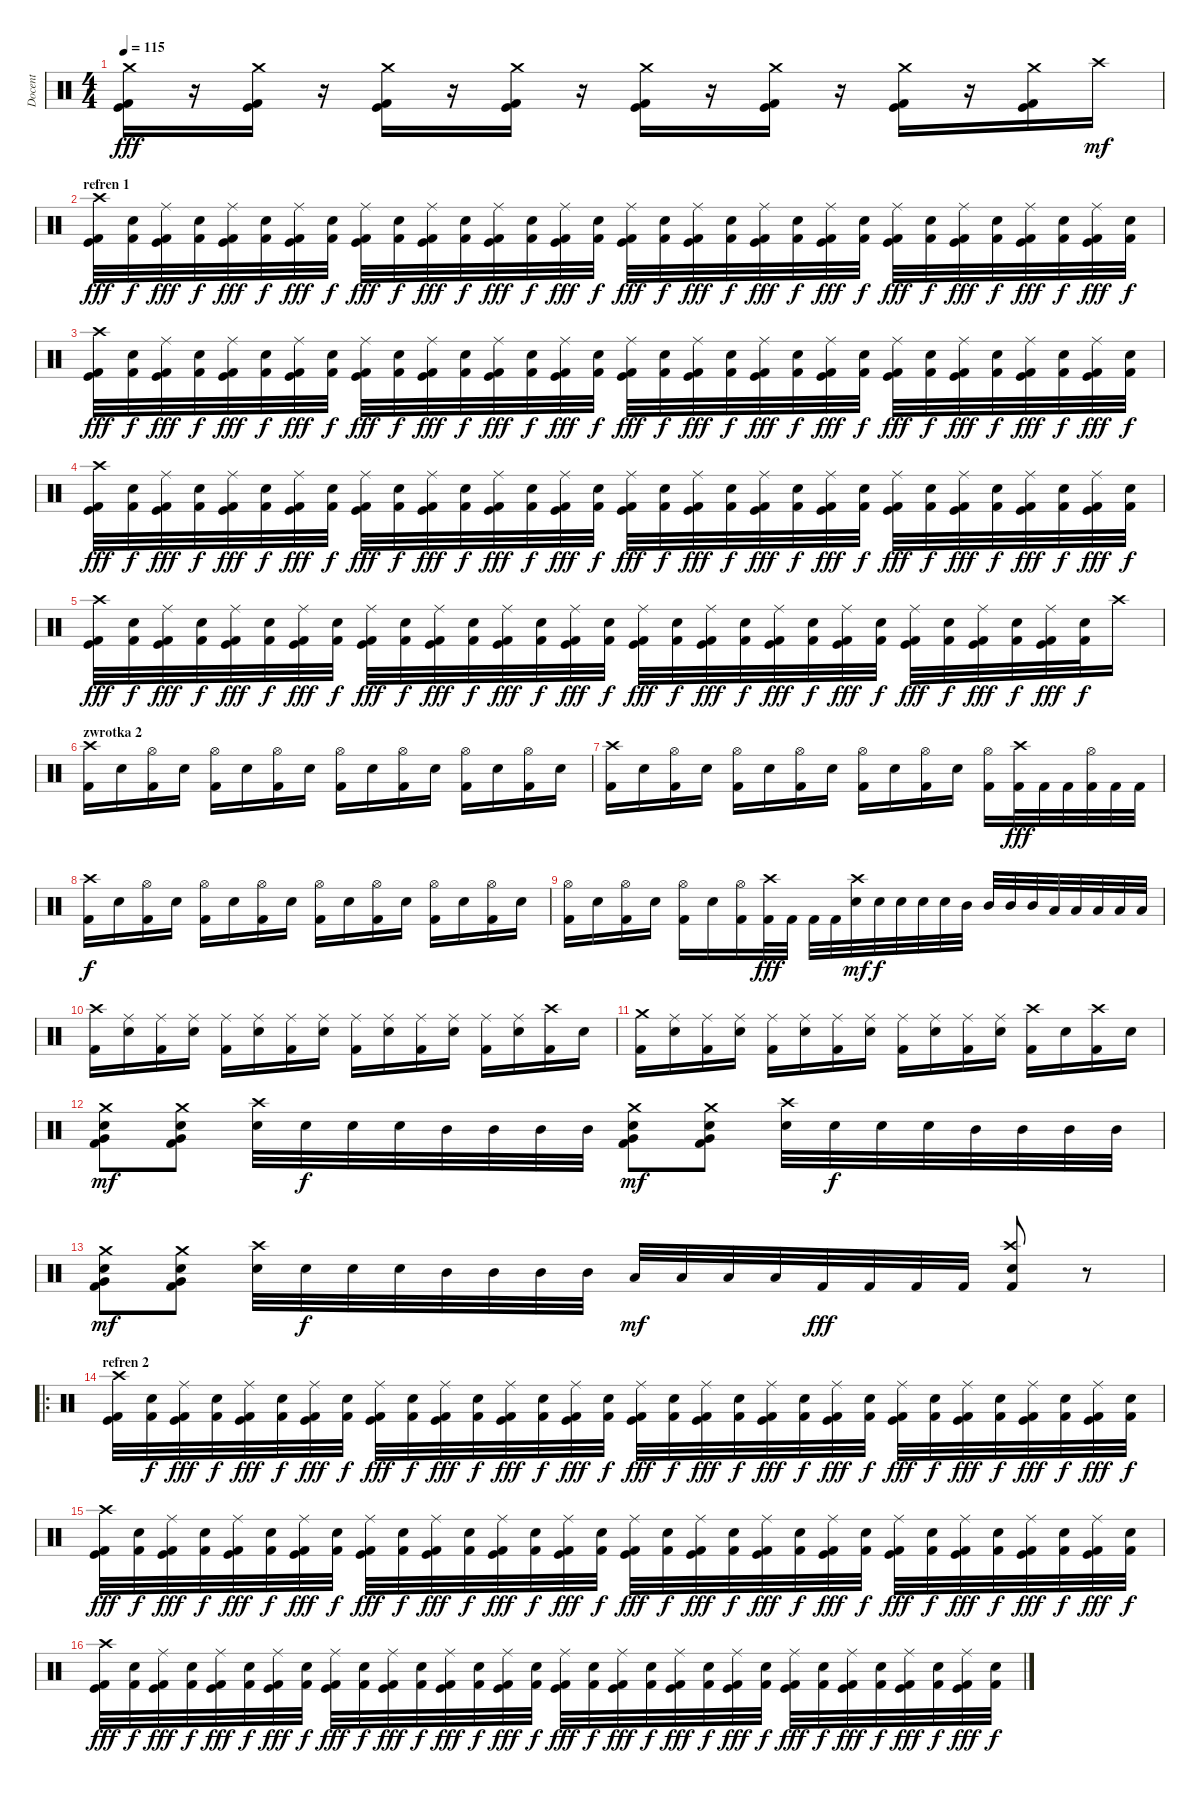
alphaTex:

\track ("Docent" "Docent") {instrument percussion}
\staff {score}
\articulation defaults
\ts (4 4)
\tempo 115
\clef neutral
\ks c
("Crash medium (hit)" "Kick (hit)" "Kick (hit) 2").16{dy fff} r.16 ("Crash medium (hit)" "Kick (hit)" "Kick (hit) 2").16 r.16 ("Crash medium (hit)" "Kick (hit)" "Kick (hit) 2").16 r.16 ("Crash medium (hit)" "Kick (hit)" "Kick (hit) 2").16 r.16 ("Crash medium (hit)" "Kick (hit)" "Kick (hit) 2").16 r.16 ("Crash medium (hit)" "Kick (hit)" "Kick (hit) 2").16 r.16 ("Crash medium (hit)" "Kick (hit)" "Kick (hit) 2").16 r.16 ("Crash medium (hit)" "Kick (hit)" "Kick (hit) 2").16 "Crash high (hit)".16{dy mf} |
\section ("" "refren 1")
("Crash high (hit)" "Kick (hit)" "Kick (hit) 2").32{dy fff} ("Electric Snare (hit)" "Kick (hit) 2").32{dy f} ("Ride (middle)" "Kick (hit)" "Kick (hit) 2").32{dy fff} ("Electric Snare (hit)" "Kick (hit) 2").32{dy f} ("Ride (middle)" "Kick (hit)" "Kick (hit) 2").32{dy fff} ("Electric Snare (hit)" "Kick (hit) 2").32{dy f} ("Ride (middle)" "Kick (hit)" "Kick (hit) 2").32{dy fff} ("Electric Snare (hit)" "Kick (hit) 2").32{dy f} ("Ride (middle)" "Kick (hit)" "Kick (hit) 2").32{dy fff} ("Electric Snare (hit)" "Kick (hit) 2").32{dy f} ("Ride (middle)" "Kick (hit)" "Kick (hit) 2").32{dy fff} ("Electric Snare (hit)" "Kick (hit) 2").32{dy f} ("Ride (middle)" "Kick (hit)" "Kick (hit) 2").32{dy fff} ("Electric Snare (hit)" "Kick (hit) 2").32{dy f} ("Ride (middle)" "Kick (hit)" "Kick (hit) 2").32{dy fff} ("Electric Snare (hit)" "Kick (hit) 2").32{dy f} ("Ride (middle)" "Kick (hit)" "Kick (hit) 2").32{dy fff} ("Electric Snare (hit)" "Kick (hit) 2").32{dy f} ("Ride (middle)" "Kick (hit)" "Kick (hit) 2").32{dy fff} ("Electric Snare (hit)" "Kick (hit) 2").32{dy f} ("Ride (middle)" "Kick (hit)" "Kick (hit) 2").32{dy fff} ("Electric Snare (hit)" "Kick (hit) 2").32{dy f} ("Ride (middle)" "Kick (hit)" "Kick (hit) 2").32{dy fff} ("Electric Snare (hit)" "Kick (hit) 2").32{dy f} ("Ride (middle)" "Kick (hit)" "Kick (hit) 2").32{dy fff} ("Electric Snare (hit)" "Kick (hit) 2").32{dy f} ("Ride (middle)" "Kick (hit)" "Kick (hit) 2").32{dy fff} ("Electric Snare (hit)" "Kick (hit) 2").32{dy f} ("Ride (middle)" "Kick (hit)" "Kick (hit) 2").32{dy fff} ("Electric Snare (hit)" "Kick (hit) 2").32{dy f} ("Ride (middle)" "Kick (hit)" "Kick (hit) 2").32{dy fff} ("Electric Snare (hit)" "Kick (hit) 2").32{dy f} |
("Crash high (hit)" "Kick (hit)" "Kick (hit) 2").32{dy fff} ("Electric Snare (hit)" "Kick (hit) 2").32{dy f} ("Ride (middle)" "Kick (hit)" "Kick (hit) 2").32{dy fff} ("Electric Snare (hit)" "Kick (hit) 2").32{dy f} ("Ride (middle)" "Kick (hit)" "Kick (hit) 2").32{dy fff} ("Electric Snare (hit)" "Kick (hit) 2").32{dy f} ("Ride (middle)" "Kick (hit)" "Kick (hit) 2").32{dy fff} ("Electric Snare (hit)" "Kick (hit) 2").32{dy f} ("Ride (middle)" "Kick (hit)" "Kick (hit) 2").32{dy fff} ("Electric Snare (hit)" "Kick (hit) 2").32{dy f} ("Ride (middle)" "Kick (hit)" "Kick (hit) 2").32{dy fff} ("Electric Snare (hit)" "Kick (hit) 2").32{dy f} ("Ride (middle)" "Kick (hit)" "Kick (hit) 2").32{dy fff} ("Electric Snare (hit)" "Kick (hit) 2").32{dy f} ("Ride (middle)" "Kick (hit)" "Kick (hit) 2").32{dy fff} ("Electric Snare (hit)" "Kick (hit) 2").32{dy f} ("Ride (middle)" "Kick (hit)" "Kick (hit) 2").32{dy fff} ("Electric Snare (hit)" "Kick (hit) 2").32{dy f} ("Ride (middle)" "Kick (hit)" "Kick (hit) 2").32{dy fff} ("Electric Snare (hit)" "Kick (hit) 2").32{dy f} ("Ride (middle)" "Kick (hit)" "Kick (hit) 2").32{dy fff} ("Electric Snare (hit)" "Kick (hit) 2").32{dy f} ("Ride (middle)" "Kick (hit)" "Kick (hit) 2").32{dy fff} ("Electric Snare (hit)" "Kick (hit) 2").32{dy f} ("Ride (middle)" "Kick (hit)" "Kick (hit) 2").32{dy fff} ("Electric Snare (hit)" "Kick (hit) 2").32{dy f} ("Ride (middle)" "Kick (hit)" "Kick (hit) 2").32{dy fff} ("Electric Snare (hit)" "Kick (hit) 2").32{dy f} ("Ride (middle)" "Kick (hit)" "Kick (hit) 2").32{dy fff} ("Electric Snare (hit)" "Kick (hit) 2").32{dy f} ("Ride (middle)" "Kick (hit)" "Kick (hit) 2").32{dy fff} ("Electric Snare (hit)" "Kick (hit) 2").32{dy f} |
("Crash high (hit)" "Kick (hit)" "Kick (hit) 2").32{dy fff} ("Electric Snare (hit)" "Kick (hit) 2").32{dy f} ("Ride (middle)" "Kick (hit)" "Kick (hit) 2").32{dy fff} ("Electric Snare (hit)" "Kick (hit) 2").32{dy f} ("Ride (middle)" "Kick (hit)" "Kick (hit) 2").32{dy fff} ("Electric Snare (hit)" "Kick (hit) 2").32{dy f} ("Ride (middle)" "Kick (hit)" "Kick (hit) 2").32{dy fff} ("Electric Snare (hit)" "Kick (hit) 2").32{dy f} ("Ride (middle)" "Kick (hit)" "Kick (hit) 2").32{dy fff} ("Electric Snare (hit)" "Kick (hit) 2").32{dy f} ("Ride (middle)" "Kick (hit)" "Kick (hit) 2").32{dy fff} ("Electric Snare (hit)" "Kick (hit) 2").32{dy f} ("Ride (middle)" "Kick (hit)" "Kick (hit) 2").32{dy fff} ("Electric Snare (hit)" "Kick (hit) 2").32{dy f} ("Ride (middle)" "Kick (hit)" "Kick (hit) 2").32{dy fff} ("Electric Snare (hit)" "Kick (hit) 2").32{dy f} ("Ride (middle)" "Kick (hit)" "Kick (hit) 2").32{dy fff} ("Electric Snare (hit)" "Kick (hit) 2").32{dy f} ("Ride (middle)" "Kick (hit)" "Kick (hit) 2").32{dy fff} ("Electric Snare (hit)" "Kick (hit) 2").32{dy f} ("Ride (middle)" "Kick (hit)" "Kick (hit) 2").32{dy fff} ("Electric Snare (hit)" "Kick (hit) 2").32{dy f} ("Ride (middle)" "Kick (hit)" "Kick (hit) 2").32{dy fff} ("Electric Snare (hit)" "Kick (hit) 2").32{dy f} ("Ride (middle)" "Kick (hit)" "Kick (hit) 2").32{dy fff} ("Electric Snare (hit)" "Kick (hit) 2").32{dy f} ("Ride (middle)" "Kick (hit)" "Kick (hit) 2").32{dy fff} ("Electric Snare (hit)" "Kick (hit) 2").32{dy f} ("Ride (middle)" "Kick (hit)" "Kick (hit) 2").32{dy fff} ("Electric Snare (hit)" "Kick (hit) 2").32{dy f} ("Ride (middle)" "Kick (hit)" "Kick (hit) 2").32{dy fff} ("Electric Snare (hit)" "Kick (hit) 2").32{dy f} |
("Crash high (hit)" "Kick (hit)" "Kick (hit) 2").32{dy fff} ("Electric Snare (hit)" "Kick (hit) 2").32{dy f} ("Ride (middle)" "Kick (hit)" "Kick (hit) 2").32{dy fff} ("Electric Snare (hit)" "Kick (hit) 2").32{dy f} ("Ride (middle)" "Kick (hit)" "Kick (hit) 2").32{dy fff} ("Electric Snare (hit)" "Kick (hit) 2").32{dy f} ("Ride (middle)" "Kick (hit)" "Kick (hit) 2").32{dy fff} ("Electric Snare (hit)" "Kick (hit) 2").32{dy f} ("Ride (middle)" "Kick (hit)" "Kick (hit) 2").32{dy fff} ("Electric Snare (hit)" "Kick (hit) 2").32{dy f} ("Ride (middle)" "Kick (hit)" "Kick (hit) 2").32{dy fff} ("Electric Snare (hit)" "Kick (hit) 2").32{dy f} ("Ride (middle)" "Kick (hit)" "Kick (hit) 2").32{dy fff} ("Electric Snare (hit)" "Kick (hit) 2").32{dy f} ("Ride (middle)" "Kick (hit)" "Kick (hit) 2").32{dy fff} ("Electric Snare (hit)" "Kick (hit) 2").32{dy f} ("Ride (middle)" "Kick (hit)" "Kick (hit) 2").32{dy fff} ("Electric Snare (hit)" "Kick (hit) 2").32{dy f} ("Ride (middle)" "Kick (hit)" "Kick (hit) 2").32{dy fff} ("Electric Snare (hit)" "Kick (hit) 2").32{dy f} ("Ride (middle)" "Kick (hit)" "Kick (hit) 2").32{dy fff} ("Electric Snare (hit)" "Kick (hit) 2").32{dy f} ("Ride (middle)" "Kick (hit)" "Kick (hit) 2").32{dy fff} ("Electric Snare (hit)" "Kick (hit) 2").32{dy f} ("Ride (middle)" "Kick (hit)" "Kick (hit) 2").32{dy fff} ("Electric Snare (hit)" "Kick (hit) 2").32{dy f} ("Ride (middle)" "Kick (hit)" "Kick (hit) 2").32{dy fff} ("Electric Snare (hit)" "Kick (hit) 2").32{dy f} ("Ride (middle)" "Kick (hit)" "Kick (hit) 2").32{dy fff} ("Electric Snare (hit)" "Kick (hit) 2").32{dy f} "Crash high (hit)".16 |
\section ("" "zwrotka 2")
("Crash high (hit)" "Kick (hit) 2").16 "Electric Snare (hit)".16 ("Hi-Hat (open)" "Kick (hit) 2").16 "Electric Snare (hit)".16 ("Hi-Hat (open)" "Kick (hit) 2").16 "Electric Snare (hit)".16 ("Hi-Hat (open)" "Kick (hit) 2").16 "Electric Snare (hit)".16 ("Hi-Hat (open)" "Kick (hit) 2").16 "Electric Snare (hit)".16 ("Hi-Hat (open)" "Kick (hit) 2").16 "Electric Snare (hit)".16 ("Hi-Hat (open)" "Kick (hit) 2").16 "Electric Snare (hit)".16 ("Hi-Hat (open)" "Kick (hit) 2").16 "Electric Snare (hit)".16 |
("Crash high (hit)" "Kick (hit) 2").16 "Electric Snare (hit)".16 ("Hi-Hat (open)" "Kick (hit) 2").16 "Electric Snare (hit)".16 ("Hi-Hat (open)" "Kick (hit) 2").16 "Electric Snare (hit)".16 ("Hi-Hat (open)" "Kick (hit) 2").16 "Electric Snare (hit)".16 ("Hi-Hat (open)" "Kick (hit) 2").16 "Electric Snare (hit)".16 ("Hi-Hat (open)" "Kick (hit) 2").16 "Electric Snare (hit)".16 ("Hi-Hat (open)" "Kick (hit) 2").16 ("Crash high (hit)" "Kick (hit) 2").32{dy fff} "Kick (hit) 2".32 "Kick (hit) 2".32 ("Hi-Hat (open)" "Kick (hit) 2").32 "Kick (hit) 2".32 "Kick (hit) 2".32 |
("Crash high (hit)" "Kick (hit) 2").16{dy f} "Electric Snare (hit)".16 ("Hi-Hat (open)" "Kick (hit) 2").16 "Electric Snare (hit)".16 ("Hi-Hat (open)" "Kick (hit) 2").16 "Electric Snare (hit)".16 ("Hi-Hat (open)" "Kick (hit) 2").16 "Electric Snare (hit)".16 ("Hi-Hat (open)" "Kick (hit) 2").16 "Electric Snare (hit)".16 ("Hi-Hat (open)" "Kick (hit) 2").16 "Electric Snare (hit)".16 ("Hi-Hat (open)" "Kick (hit) 2").16 "Electric Snare (hit)".16 ("Hi-Hat (open)" "Kick (hit) 2").16 "Electric Snare (hit)".16 |
("Hi-Hat (open)" "Kick (hit) 2").16 "Electric Snare (hit)".16 ("Hi-Hat (open)" "Kick (hit) 2").16 "Electric Snare (hit)".16 ("Hi-Hat (open)" "Kick (hit) 2").16 "Electric Snare (hit)".16 ("Hi-Hat (open)" "Kick (hit) 2").16 ("Crash high (hit)" "Kick (hit) 2").32{dy fff} "Kick (hit) 2".32 "Kick (hit) 2".32 "Kick (hit) 2".32 ("Crash high (hit)" "Electric Snare (hit)").32{dy mf} "Electric Snare (hit)".32{dy f} "Electric Snare (hit)".32 "Electric Snare (hit)".32 "Electric Snare (hit)".32 "Mid Tom (hit)".32 "Mid Tom (hit)".32 "Mid Tom (hit)".32 "Mid Tom (hit)".32 "Low Tom (hit)".32 "Low Tom (hit)".32 "Low Tom (hit)".32 "Low Tom (hit)".32 "Low Tom (hit)".32 |
("Crash high (hit)" "Kick (hit) 2").16 ("Ride (middle)" "Electric Snare (hit)").16 ("Ride (middle)" "Kick (hit) 2").16 ("Ride (middle)" "Electric Snare (hit)").16 ("Ride (middle)" "Kick (hit) 2").16 ("Ride (middle)" "Electric Snare (hit)").16 ("Ride (middle)" "Kick (hit) 2").16 ("Ride (middle)" "Electric Snare (hit)").16 ("Ride (middle)" "Kick (hit) 2").16 ("Ride (middle)" "Electric Snare (hit)").16 ("Ride (middle)" "Kick (hit) 2").16 ("Ride (middle)" "Electric Snare (hit)").16 ("Ride (middle)" "Kick (hit) 2").16 ("Ride (middle)" "Electric Snare (hit)").16 ("Crash high (hit)" "Kick (hit) 2").16 "Electric Snare (hit)".16 |
("Crash medium (hit)" "Kick (hit) 2").16 ("Ride (middle)" "Electric Snare (hit)").16 ("Ride (middle)" "Kick (hit) 2").16 ("Ride (middle)" "Electric Snare (hit)").16 ("Ride (middle)" "Kick (hit) 2").16 ("Ride (middle)" "Electric Snare (hit)").16 ("Ride (middle)" "Kick (hit) 2").16 ("Ride (middle)" "Electric Snare (hit)").16 ("Ride (middle)" "Kick (hit) 2").16 ("Ride (middle)" "Electric Snare (hit)").16 ("Ride (middle)" "Kick (hit) 2").16 ("Ride (middle)" "Electric Snare (hit)").16 ("Crash high (hit)" "Kick (hit) 2").16 "Electric Snare (hit)".16 ("Crash high (hit)" "Kick (hit) 2").16 "Electric Snare (hit)".16 |
("Crash medium (hit)" "Very Low Tom (hit)" "Kick (hit) 2" "Electric Snare (hit)").8{dy mf} ("Crash medium (hit)" "Very Low Tom (hit)" "Kick (hit) 2" "Electric Snare (hit)").8 ("Crash high (hit)" "Electric Snare (hit)").32 "Electric Snare (hit)".32{dy f} "Electric Snare (hit)".32 "Electric Snare (hit)".32 "Mid Tom (hit)".32 "Mid Tom (hit)".32 "Mid Tom (hit)".32 "Mid Tom (hit)".32 ("Crash medium (hit)" "Very Low Tom (hit)" "Kick (hit) 2" "Electric Snare (hit)").8{dy mf} ("Crash medium (hit)" "Very Low Tom (hit)" "Kick (hit) 2" "Electric Snare (hit)").8 ("Crash high (hit)" "Electric Snare (hit)").32 "Electric Snare (hit)".32{dy f} "Electric Snare (hit)".32 "Electric Snare (hit)".32 "Mid Tom (hit)".32 "Mid Tom (hit)".32 "Mid Tom (hit)".32 "Mid Tom (hit)".32 |
("Crash medium (hit)" "Very Low Tom (hit)" "Kick (hit) 2" "Electric Snare (hit)").8{dy mf} ("Crash medium (hit)" "Very Low Tom (hit)" "Kick (hit) 2" "Electric Snare (hit)").8 ("Crash high (hit)" "Electric Snare (hit)").32 "Electric Snare (hit)".32{dy f} "Electric Snare (hit)".32 "Electric Snare (hit)".32 "Mid Tom (hit)".32 "Mid Tom (hit)".32 "Mid Tom (hit)".32 "Mid Tom (hit)".32 "Low Tom (hit)".32{dy mf} "Low Tom (hit)".32 "Low Tom (hit)".32 "Low Tom (hit)".32 "Kick (hit) 2".32{dy fff} "Kick (hit) 2".32 "Kick (hit) 2".32 "Kick (hit) 2".32 ("Crash high (hit)" "Electric Snare (hit)" "Kick (hit) 2").8 r.8 |
\ro
\section ("" "refren 2")
("Crash high (hit)" "Kick (hit)" "Kick (hit) 2").32 ("Electric Snare (hit)" "Kick (hit) 2").32{dy f} ("Ride (middle)" "Kick (hit)" "Kick (hit) 2").32{dy fff} ("Electric Snare (hit)" "Kick (hit) 2").32{dy f} ("Ride (middle)" "Kick (hit)" "Kick (hit) 2").32{dy fff} ("Electric Snare (hit)" "Kick (hit) 2").32{dy f} ("Ride (middle)" "Kick (hit)" "Kick (hit) 2").32{dy fff} ("Electric Snare (hit)" "Kick (hit) 2").32{dy f} ("Ride (middle)" "Kick (hit)" "Kick (hit) 2").32{dy fff} ("Electric Snare (hit)" "Kick (hit) 2").32{dy f} ("Ride (middle)" "Kick (hit)" "Kick (hit) 2").32{dy fff} ("Electric Snare (hit)" "Kick (hit) 2").32{dy f} ("Ride (middle)" "Kick (hit)" "Kick (hit) 2").32{dy fff} ("Electric Snare (hit)" "Kick (hit) 2").32{dy f} ("Ride (middle)" "Kick (hit)" "Kick (hit) 2").32{dy fff} ("Electric Snare (hit)" "Kick (hit) 2").32{dy f} ("Ride (middle)" "Kick (hit)" "Kick (hit) 2").32{dy fff} ("Electric Snare (hit)" "Kick (hit) 2").32{dy f} ("Ride (middle)" "Kick (hit)" "Kick (hit) 2").32{dy fff} ("Electric Snare (hit)" "Kick (hit) 2").32{dy f} ("Ride (middle)" "Kick (hit)" "Kick (hit) 2").32{dy fff} ("Electric Snare (hit)" "Kick (hit) 2").32{dy f} ("Ride (middle)" "Kick (hit)" "Kick (hit) 2").32{dy fff} ("Electric Snare (hit)" "Kick (hit) 2").32{dy f} ("Ride (middle)" "Kick (hit)" "Kick (hit) 2").32{dy fff} ("Electric Snare (hit)" "Kick (hit) 2").32{dy f} ("Ride (middle)" "Kick (hit)" "Kick (hit) 2").32{dy fff} ("Electric Snare (hit)" "Kick (hit) 2").32{dy f} ("Ride (middle)" "Kick (hit)" "Kick (hit) 2").32{dy fff} ("Electric Snare (hit)" "Kick (hit) 2").32{dy f} ("Ride (middle)" "Kick (hit)" "Kick (hit) 2").32{dy fff} ("Electric Snare (hit)" "Kick (hit) 2").32{dy f} |
("Crash high (hit)" "Kick (hit)" "Kick (hit) 2").32{dy fff} ("Electric Snare (hit)" "Kick (hit) 2").32{dy f} ("Ride (middle)" "Kick (hit)" "Kick (hit) 2").32{dy fff} ("Electric Snare (hit)" "Kick (hit) 2").32{dy f} ("Ride (middle)" "Kick (hit)" "Kick (hit) 2").32{dy fff} ("Electric Snare (hit)" "Kick (hit) 2").32{dy f} ("Ride (middle)" "Kick (hit)" "Kick (hit) 2").32{dy fff} ("Electric Snare (hit)" "Kick (hit) 2").32{dy f} ("Ride (middle)" "Kick (hit)" "Kick (hit) 2").32{dy fff} ("Electric Snare (hit)" "Kick (hit) 2").32{dy f} ("Ride (middle)" "Kick (hit)" "Kick (hit) 2").32{dy fff} ("Electric Snare (hit)" "Kick (hit) 2").32{dy f} ("Ride (middle)" "Kick (hit)" "Kick (hit) 2").32{dy fff} ("Electric Snare (hit)" "Kick (hit) 2").32{dy f} ("Ride (middle)" "Kick (hit)" "Kick (hit) 2").32{dy fff} ("Electric Snare (hit)" "Kick (hit) 2").32{dy f} ("Ride (middle)" "Kick (hit)" "Kick (hit) 2").32{dy fff} ("Electric Snare (hit)" "Kick (hit) 2").32{dy f} ("Ride (middle)" "Kick (hit)" "Kick (hit) 2").32{dy fff} ("Electric Snare (hit)" "Kick (hit) 2").32{dy f} ("Ride (middle)" "Kick (hit)" "Kick (hit) 2").32{dy fff} ("Electric Snare (hit)" "Kick (hit) 2").32{dy f} ("Ride (middle)" "Kick (hit)" "Kick (hit) 2").32{dy fff} ("Electric Snare (hit)" "Kick (hit) 2").32{dy f} ("Ride (middle)" "Kick (hit)" "Kick (hit) 2").32{dy fff} ("Electric Snare (hit)" "Kick (hit) 2").32{dy f} ("Ride (middle)" "Kick (hit)" "Kick (hit) 2").32{dy fff} ("Electric Snare (hit)" "Kick (hit) 2").32{dy f} ("Ride (middle)" "Kick (hit)" "Kick (hit) 2").32{dy fff} ("Electric Snare (hit)" "Kick (hit) 2").32{dy f} ("Ride (middle)" "Kick (hit)" "Kick (hit) 2").32{dy fff} ("Electric Snare (hit)" "Kick (hit) 2").32{dy f} |
("Crash high (hit)" "Kick (hit)" "Kick (hit) 2").32{dy fff} ("Electric Snare (hit)" "Kick (hit) 2").32{dy f} ("Ride (middle)" "Kick (hit)" "Kick (hit) 2").32{dy fff} ("Electric Snare (hit)" "Kick (hit) 2").32{dy f} ("Ride (middle)" "Kick (hit)" "Kick (hit) 2").32{dy fff} ("Electric Snare (hit)" "Kick (hit) 2").32{dy f} ("Ride (middle)" "Kick (hit)" "Kick (hit) 2").32{dy fff} ("Electric Snare (hit)" "Kick (hit) 2").32{dy f} ("Ride (middle)" "Kick (hit)" "Kick (hit) 2").32{dy fff} ("Electric Snare (hit)" "Kick (hit) 2").32{dy f} ("Ride (middle)" "Kick (hit)" "Kick (hit) 2").32{dy fff} ("Electric Snare (hit)" "Kick (hit) 2").32{dy f} ("Ride (middle)" "Kick (hit)" "Kick (hit) 2").32{dy fff} ("Electric Snare (hit)" "Kick (hit) 2").32{dy f} ("Ride (middle)" "Kick (hit)" "Kick (hit) 2").32{dy fff} ("Electric Snare (hit)" "Kick (hit) 2").32{dy f} ("Ride (middle)" "Kick (hit)" "Kick (hit) 2").32{dy fff} ("Electric Snare (hit)" "Kick (hit) 2").32{dy f} ("Ride (middle)" "Kick (hit)" "Kick (hit) 2").32{dy fff} ("Electric Snare (hit)" "Kick (hit) 2").32{dy f} ("Ride (middle)" "Kick (hit)" "Kick (hit) 2").32{dy fff} ("Electric Snare (hit)" "Kick (hit) 2").32{dy f} ("Ride (middle)" "Kick (hit)" "Kick (hit) 2").32{dy fff} ("Electric Snare (hit)" "Kick (hit) 2").32{dy f} ("Ride (middle)" "Kick (hit)" "Kick (hit) 2").32{dy fff} ("Electric Snare (hit)" "Kick (hit) 2").32{dy f} ("Ride (middle)" "Kick (hit)" "Kick (hit) 2").32{dy fff} ("Electric Snare (hit)" "Kick (hit) 2").32{dy f} ("Ride (middle)" "Kick (hit)" "Kick (hit) 2").32{dy fff} ("Electric Snare (hit)" "Kick (hit) 2").32{dy f} ("Ride (middle)" "Kick (hit)" "Kick (hit) 2").32{dy fff} ("Electric Snare (hit)" "Kick (hit) 2").32{dy f}
